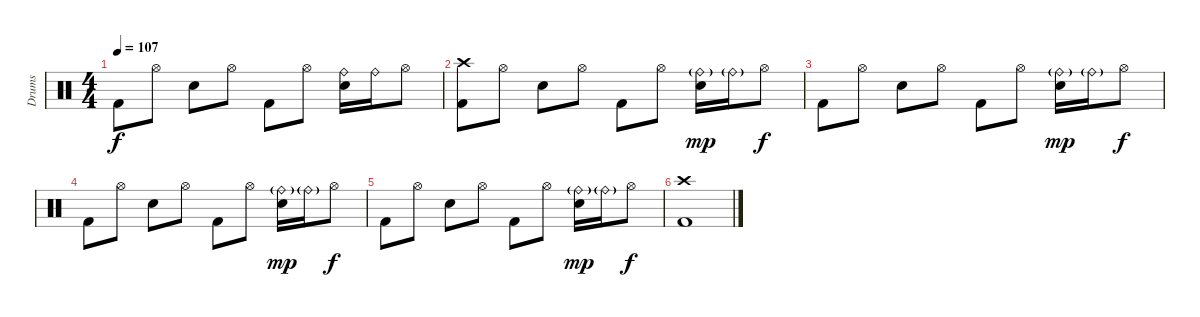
\track ("Drums" "Drums") {instrument percussion}
\staff {score}
\articulation defaults
\ts (4 4)
\tempo 107
\clef neutral
\ks c "Kick (hit) 2".8{dy f} "Hi-Hat (open)".8 "Snare (hit) 2".8 "Hi-Hat (open)".8 "Kick (hit) 2".8 "Hi-Hat (open)".8
("Snare (hit) 2" "Ride (bell)").16 "Ride (bell)".16 "Hi-Hat (open)".8 |
("Kick (hit) 2" "Crash high (hit)").8 "Hi-Hat (open)".8 "Snare (hit) 2".8 "Hi-Hat (open)".8 "Kick (hit) 2".8 "Hi-Hat (open)".8 ("Snare (hit) 2" "Ride (bell)"{g}).16{dy mp} "Ride (bell)"{g}.16 "Hi-Hat (open)".8{dy f} |
"Kick (hit) 2".8 "Hi-Hat (open)".8 "Snare (hit) 2".8 "Hi-Hat (open)".8 "Kick (hit) 2".8 "Hi-Hat (open)".8 ("Snare (hit) 2" "Ride (bell)"{g}).16{dy mp} "Ride (bell)"{g}.16 "Hi-Hat (open)".8{dy f} |
"Kick (hit) 2".8 "Hi-Hat (open)".8 "Snare (hit) 2".8 "Hi-Hat (open)".8 "Kick (hit) 2".8 "Hi-Hat (open)".8 ("Snare (hit) 2" "Ride (bell)"{g}).16{dy mp} "Ride (bell)"{g}.16 "Hi-Hat (open)".8{dy f} |
"Kick (hit) 2".8 "Hi-Hat (open)".8 "Snare (hit) 2".8 "Hi-Hat (open)".8 "Kick (hit) 2".8 "Hi-Hat (open)".8 ("Snare (hit) 2" "Ride (bell)"{g}).16{dy mp} "Ride (bell)"{g}.16 "Hi-Hat (open)".8{dy f} |
("Crash high (hit)" "Kick (hit) 2").1
